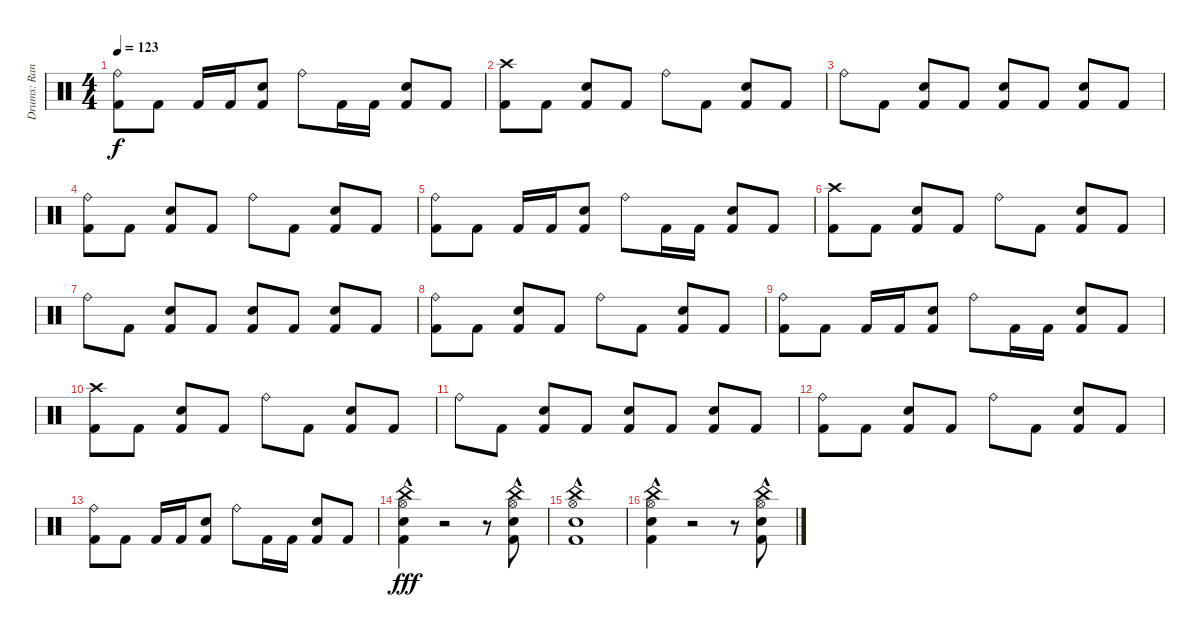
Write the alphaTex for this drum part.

\track ("Drums: Randy" "Drums: Ran") {instrument percussion}
\staff {score}
\articulation defaults
\ts (4 4)
\tempo 123
\clef neutral
\ks c
("Ride (bell)" "Kick (hit) 2").8{dy f} "Kick (hit) 2".8 "Kick (hit) 2".16 "Kick (hit) 2".16 ("Snare (hit) 2" "Kick (hit) 2").8 "Ride (bell)".8 "Kick (hit) 2".16 "Kick (hit) 2".16 ("Snare (hit) 2" "Kick (hit) 2").8 "Kick (hit) 2".8 |
("Crash high (hit)" "Kick (hit) 2").8 "Kick (hit) 2".8 ("Snare (hit) 2" "Kick (hit) 2").8 "Kick (hit) 2".8 "Ride (bell)".8 "Kick (hit) 2".8 ("Snare (hit) 2" "Kick (hit) 2").8 "Kick (hit) 2".8 |
"Ride (bell)".8 "Kick (hit) 2".8 ("Snare (hit) 2" "Kick (hit) 2").8 "Kick (hit) 2".8 ("Snare (hit) 2" "Kick (hit) 2").8 "Kick (hit) 2".8 ("Snare (hit) 2" "Kick (hit) 2").8 "Kick (hit) 2".8 |
("Ride (bell)" "Kick (hit) 2").8 "Kick (hit) 2".8 ("Snare (hit) 2" "Kick (hit) 2").8 "Kick (hit) 2".8 "Ride (bell)".8 "Kick (hit) 2".8 ("Snare (hit) 2" "Kick (hit) 2").8 "Kick (hit) 2".8 |
("Ride (bell)" "Kick (hit) 2").8 "Kick (hit) 2".8 "Kick (hit) 2".16 "Kick (hit) 2".16 ("Snare (hit) 2" "Kick (hit) 2").8 "Ride (bell)".8 "Kick (hit) 2".16 "Kick (hit) 2".16 ("Snare (hit) 2" "Kick (hit) 2").8 "Kick (hit) 2".8 |
("Crash high (hit)" "Kick (hit) 2").8 "Kick (hit) 2".8 ("Snare (hit) 2" "Kick (hit) 2").8 "Kick (hit) 2".8 "Ride (bell)".8 "Kick (hit) 2".8 ("Snare (hit) 2" "Kick (hit) 2").8 "Kick (hit) 2".8 |
"Ride (bell)".8 "Kick (hit) 2".8 ("Snare (hit) 2" "Kick (hit) 2").8 "Kick (hit) 2".8 ("Snare (hit) 2" "Kick (hit) 2").8 "Kick (hit) 2".8 ("Snare (hit) 2" "Kick (hit) 2").8 "Kick (hit) 2".8 |
("Ride (bell)" "Kick (hit) 2").8 "Kick (hit) 2".8 ("Snare (hit) 2" "Kick (hit) 2").8 "Kick (hit) 2".8 "Ride (bell)".8 "Kick (hit) 2".8 ("Snare (hit) 2" "Kick (hit) 2").8 "Kick (hit) 2".8 |
("Ride (bell)" "Kick (hit) 2").8 "Kick (hit) 2".8 "Kick (hit) 2".16 "Kick (hit) 2".16 ("Snare (hit) 2" "Kick (hit) 2").8 "Ride (bell)".8 "Kick (hit) 2".16 "Kick (hit) 2".16 ("Snare (hit) 2" "Kick (hit) 2").8 "Kick (hit) 2".8 |
("Crash high (hit)" "Kick (hit) 2").8 "Kick (hit) 2".8 ("Snare (hit) 2" "Kick (hit) 2").8 "Kick (hit) 2".8 "Ride (bell)".8 "Kick (hit) 2".8 ("Snare (hit) 2" "Kick (hit) 2").8 "Kick (hit) 2".8 |
"Ride (bell)".8 "Kick (hit) 2".8 ("Snare (hit) 2" "Kick (hit) 2").8 "Kick (hit) 2".8 ("Snare (hit) 2" "Kick (hit) 2").8 "Kick (hit) 2".8 ("Snare (hit) 2" "Kick (hit) 2").8 "Kick (hit) 2".8 |
("Ride (bell)" "Kick (hit) 2").8 "Kick (hit) 2".8 ("Snare (hit) 2" "Kick (hit) 2").8 "Kick (hit) 2".8 "Ride (bell)".8 "Kick (hit) 2".8 ("Snare (hit) 2" "Kick (hit) 2").8 "Kick (hit) 2".8 |
("Ride (bell)" "Kick (hit) 2").8 "Kick (hit) 2".8 "Kick (hit) 2".16 "Kick (hit) 2".16 ("Snare (hit) 2" "Kick (hit) 2").8 "Ride (bell)".8 "Kick (hit) 2".16 "Kick (hit) 2".16 ("Snare (hit) 2" "Kick (hit) 2").8 "Kick (hit) 2".8 |
("China (hit)" "Hi-Hat (open)" "Snare (hit) 2"{hac} "Kick (hit) 2"{hac}).4{dy fff} r.2 r.8 ("China (hit)" "Hi-Hat (open)" "Snare (hit) 2"{hac} "Kick (hit) 2"{hac}).8 |
("China (hit)" "Hi-Hat (open)" "Snare (hit) 2"{hac} "Kick (hit) 2"{hac}).1 |
("China (hit)" "Hi-Hat (open)" "Snare (hit) 2"{hac} "Kick (hit) 2"{hac}).4 r.2 r.8 ("China (hit)" "Hi-Hat (open)" "Snare (hit) 2"{hac} "Kick (hit) 2"{hac}).8
